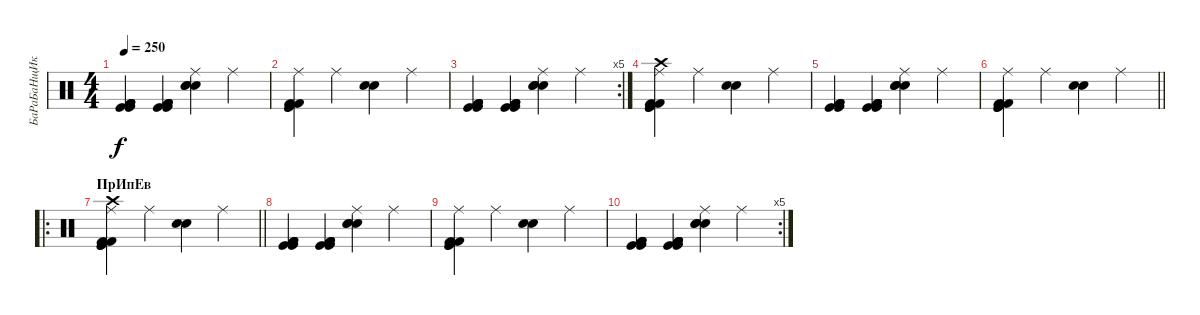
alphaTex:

\track ("БаРаБаНщИк" "БаРаБаНщИк") {instrument percussion}
\staff {score}
\articulation defaults
\ts (4 4)
\tempo 250
\clef neutral
\ks c
("Kick (hit) 2" "Kick (hit)" "Kick (hit)" "Kick (hit) 2" "Kick (hit) 2").4{dy f} ("Kick (hit) 2" "Kick (hit) 2" "Kick (hit)" "Kick (hit)" "Kick (hit) 2").4 ("Ride (middle)" "Snare (hit) 2" "Snare (hit) 2" "Electric Snare (hit)").4 "Ride (middle)".4 |
("Ride (middle)" "Kick (hit)" "Kick (hit)" "Kick (hit) 2" "Kick (hit) 2").4 "Ride (middle)".4 ("Electric Snare (hit)" "Snare (hit) 2").4 "Ride (middle)".4 |
\rc 5
("Kick (hit) 2" "Kick (hit)" "Kick (hit)" "Kick (hit) 2" "Kick (hit) 2").4 ("Kick (hit) 2" "Kick (hit) 2" "Kick (hit)" "Kick (hit)" "Kick (hit) 2").4 ("Ride (middle)" "Snare (hit) 2" "Snare (hit) 2" "Electric Snare (hit)").4 "Ride (middle)".4 |
("Ride (middle)" "Kick (hit)" "Kick (hit)" "Kick (hit) 2" "Kick (hit) 2" "Crash high (hit)").4 "Ride (middle)".4 ("Electric Snare (hit)" "Snare (hit) 2").4 "Ride (middle)".4 |
("Kick (hit) 2" "Kick (hit)" "Kick (hit)" "Kick (hit) 2" "Kick (hit) 2").4 ("Kick (hit) 2" "Kick (hit) 2" "Kick (hit)" "Kick (hit)" "Kick (hit) 2").4 ("Ride (middle)" "Snare (hit) 2" "Snare (hit) 2" "Electric Snare (hit)").4 "Ride (middle)".4 |
\barLineRight lightlight
("Ride (middle)" "Kick (hit)" "Kick (hit)" "Kick (hit) 2" "Kick (hit) 2").4 "Ride (middle)".4 ("Electric Snare (hit)" "Snare (hit) 2").4 "Ride (middle)".4 |
\ro
\section ("" "ПрИпЕв")
\barLineRight lightlight
("Ride (middle)" "Kick (hit)" "Kick (hit)" "Kick (hit) 2" "Kick (hit) 2" "Crash high (hit)").4 "Ride (middle)".4 ("Electric Snare (hit)" "Snare (hit) 2").4 "Ride (middle)".4 |
("Kick (hit) 2" "Kick (hit)" "Kick (hit)" "Kick (hit) 2" "Kick (hit) 2").4 ("Kick (hit) 2" "Kick (hit) 2" "Kick (hit)" "Kick (hit)" "Kick (hit) 2").4 ("Ride (middle)" "Snare (hit) 2" "Snare (hit) 2" "Electric Snare (hit)").4 "Ride (middle)".4 |
("Ride (middle)" "Kick (hit)" "Kick (hit)" "Kick (hit) 2" "Kick (hit) 2").4 "Ride (middle)".4 ("Electric Snare (hit)" "Snare (hit) 2").4 "Ride (middle)".4 |
\rc 5
("Kick (hit) 2" "Kick (hit)" "Kick (hit)" "Kick (hit) 2" "Kick (hit) 2").4 ("Kick (hit) 2" "Kick (hit) 2" "Kick (hit)" "Kick (hit)" "Kick (hit) 2").4 ("Ride (middle)" "Snare (hit) 2" "Snare (hit) 2" "Electric Snare (hit)").4 "Ride (middle)".4
